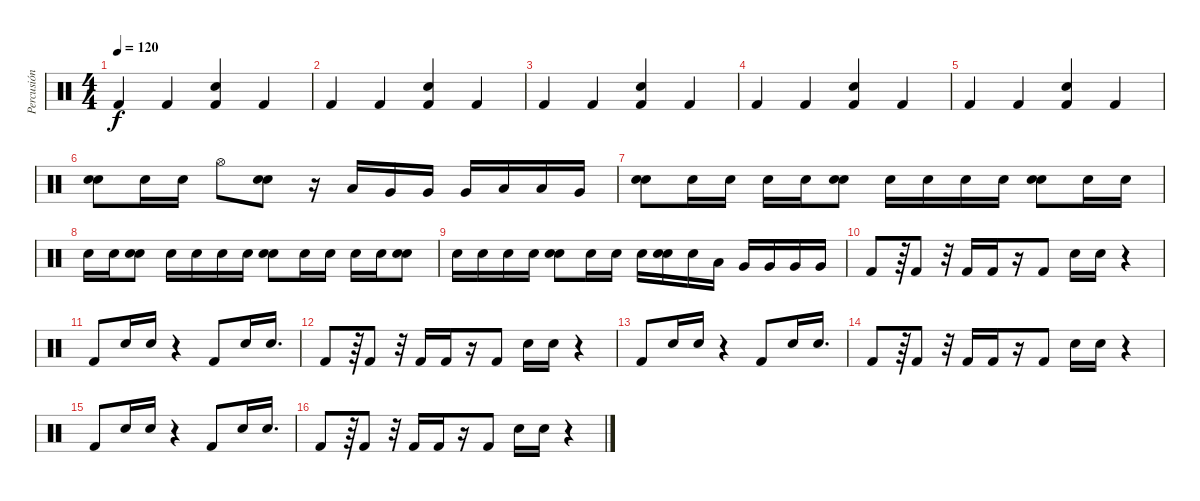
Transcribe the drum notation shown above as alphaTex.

\track ("Percusión" "Percusión") {instrument percussion}
\staff {score}
\articulation defaults
\ts (4 4)
\tempo 120
\clef neutral
\ks c "Kick (hit) 2".4{dy f} "Kick (hit) 2".4
("Kick (hit) 2" "Snare (hit) 2").4 "Kick (hit) 2".4 |
"Kick (hit) 2".4 "Kick (hit) 2".4 ("Kick (hit) 2" "Snare (hit) 2").4 "Kick (hit) 2".4 |
"Kick (hit) 2".4 "Kick (hit) 2".4 ("Kick (hit) 2" "Snare (hit) 2").4 "Kick (hit) 2".4 |
"Kick (hit) 2".4 "Kick (hit) 2".4 ("Kick (hit) 2" "Snare (hit) 2").4 "Kick (hit) 2".4 |
"Kick (hit) 2".4 "Kick (hit) 2".4 ("Kick (hit) 2" "Snare (hit) 2").4 "Kick (hit) 2".4 |
("Electric Snare (hit)" "Snare (hit) 2").8 "Snare (hit) 2".16 "Snare (hit) 2".16 "Hi-Hat (open)".8 ("Electric Snare (hit)" "Snare (hit) 2").8 r.16 "Low Floor Tom (hit)".16 "Very Low Tom (hit)".16 "Very Low Tom (hit)".16 "Very Low Tom (hit)".16 "Low Floor Tom (hit)".16 "Low Floor Tom (hit)".16 "Very Low Tom (hit)".16 |
("Snare (hit) 2" "Electric Snare (hit)").8 "Snare (hit) 2".16 "Snare (hit) 2".16 "Snare (hit) 2".16 "Snare (hit) 2".16 ("Snare (hit) 2" "Electric Snare (hit)").8 "Snare (hit) 2".16 "Snare (hit) 2".16 "Snare (hit) 2".16 "Snare (hit) 2".16 ("Snare (hit) 2" "Electric Snare (hit)").8 "Snare (hit) 2".16 "Snare (hit) 2".16 |
"Snare (hit) 2".16 "Snare (hit) 2".16 ("Snare (hit) 2" "Electric Snare (hit)").8 "Snare (hit) 2".16 "Snare (hit) 2".16 "Snare (hit) 2".16 "Snare (hit) 2".16 ("Snare (hit) 2" "Electric Snare (hit)").8 "Snare (hit) 2".16 "Snare (hit) 2".16 "Snare (hit) 2".16 "Snare (hit) 2".16 ("Snare (hit) 2" "Electric Snare (hit)").8 |
"Snare (hit) 2".16 "Snare (hit) 2".16 "Snare (hit) 2".16 "Snare (hit) 2".16 ("Snare (hit) 2" "Electric Snare (hit)").8 "Snare (hit) 2".16 "Snare (hit) 2".16 "Snare (hit) 2".16 ("Snare (hit) 2" "Electric Snare (hit)").16 "Snare (hit) 2".16 "Low Floor Tom (hit)".16 "Very Low Tom (hit)".16 "Very Low Tom (hit)".16 "Very Low Tom (hit)".16 "Very Low Tom (hit)".16 |
"Kick (hit) 2".8 r.64 "Kick (hit) 2".8 r.32 "Kick (hit) 2".16 "Kick (hit) 2".16 r.16 "Kick (hit) 2".8 "Snare (hit) 2".16 "Snare (hit) 2".16 r.4 |
"Kick (hit) 2".8 "Snare (hit) 2".16 "Snare (hit) 2".16 r.4 "Kick (hit) 2".8 "Snare (hit) 2".16 "Snare (hit) 2".16{d} |
"Kick (hit) 2".8 r.64 "Kick (hit) 2".8 r.32 "Kick (hit) 2".16 "Kick (hit) 2".16 r.16 "Kick (hit) 2".8 "Snare (hit) 2".16 "Snare (hit) 2".16 r.4 |
"Kick (hit) 2".8 "Snare (hit) 2".16 "Snare (hit) 2".16 r.4 "Kick (hit) 2".8 "Snare (hit) 2".16 "Snare (hit) 2".16{d} |
"Kick (hit) 2".8 r.64 "Kick (hit) 2".8 r.32 "Kick (hit) 2".16 "Kick (hit) 2".16 r.16 "Kick (hit) 2".8 "Snare (hit) 2".16 "Snare (hit) 2".16 r.4 |
"Kick (hit) 2".8 "Snare (hit) 2".16 "Snare (hit) 2".16 r.4 "Kick (hit) 2".8 "Snare (hit) 2".16 "Snare (hit) 2".16{d} |
"Kick (hit) 2".8 r.64 "Kick (hit) 2".8 r.32 "Kick (hit) 2".16 "Kick (hit) 2".16 r.16 "Kick (hit) 2".8 "Snare (hit) 2".16 "Snare (hit) 2".16 r.4
